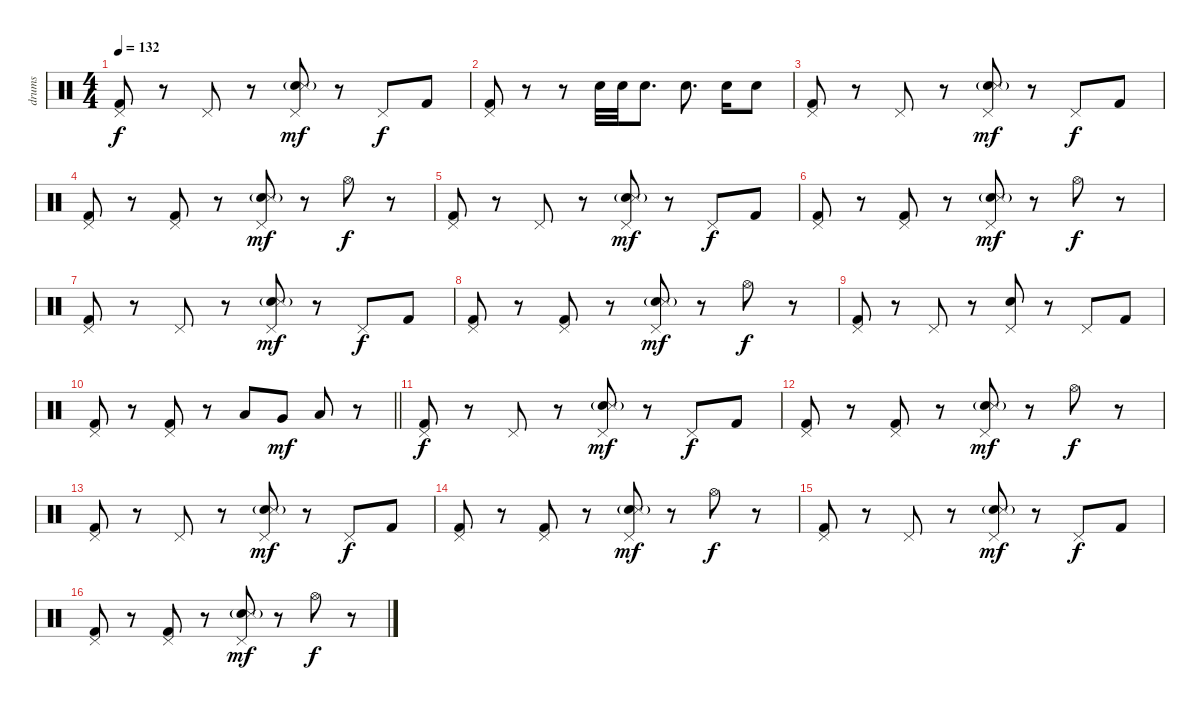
\track ("drums" "drums") {instrument percussion}
\staff {score}
\articulation defaults
\ts (4 4)
\tempo 132
\clef neutral
\ks c
("Pedal Hi-Hat (hit)" "Kick (hit) 2").8{dy f} r.8 "Pedal Hi-Hat (hit)".8 r.8 ("Pedal Hi-Hat (hit)" "Electric Snare (hit)"{g} "Snare (side stick) 3").8{dy mf} r.8 "Pedal Hi-Hat (hit)".8{dy f} "Kick (hit) 2".8 |
("Pedal Hi-Hat (hit)" "Kick (hit) 2").8 r.8 r.8 "Electric Snare (hit)".32 "Electric Snare (hit)".32 "Electric Snare (hit)".8{d} "Electric Snare (hit)".8{d} "Electric Snare (hit)".16 "Electric Snare (hit)".8 |
("Pedal Hi-Hat (hit)" "Kick (hit) 2").8 r.8 "Pedal Hi-Hat (hit)".8 r.8 ("Pedal Hi-Hat (hit)" "Electric Snare (hit)"{g} "Snare (side stick) 3").8{dy mf} r.8 "Pedal Hi-Hat (hit)".8{dy f} "Kick (hit) 2".8 |
("Pedal Hi-Hat (hit)" "Kick (hit) 2").8 r.8 ("Pedal Hi-Hat (hit)" "Kick (hit) 2").8 r.8 ("Pedal Hi-Hat (hit)" "Electric Snare (hit)"{g} "Snare (side stick) 3").8{dy mf} r.8 "Hi-Hat (open)".8{dy f} r.8 |
("Pedal Hi-Hat (hit)" "Kick (hit) 2").8 r.8 "Pedal Hi-Hat (hit)".8 r.8 ("Pedal Hi-Hat (hit)" "Electric Snare (hit)"{g} "Snare (side stick) 3").8{dy mf} r.8 "Pedal Hi-Hat (hit)".8{dy f} "Kick (hit) 2".8 |
("Pedal Hi-Hat (hit)" "Kick (hit) 2").8 r.8 ("Pedal Hi-Hat (hit)" "Kick (hit) 2").8 r.8 ("Pedal Hi-Hat (hit)" "Electric Snare (hit)"{g} "Snare (side stick) 3").8{dy mf} r.8 "Hi-Hat (open)".8{dy f} r.8 |
("Pedal Hi-Hat (hit)" "Kick (hit) 2").8 r.8 "Pedal Hi-Hat (hit)".8 r.8 ("Pedal Hi-Hat (hit)" "Electric Snare (hit)"{g} "Snare (side stick) 3").8{dy mf} r.8 "Pedal Hi-Hat (hit)".8{dy f} "Kick (hit) 2".8 |
("Pedal Hi-Hat (hit)" "Kick (hit) 2").8 r.8 ("Pedal Hi-Hat (hit)" "Kick (hit) 2").8 r.8 ("Pedal Hi-Hat (hit)" "Electric Snare (hit)"{g} "Snare (side stick) 3").8{dy mf} r.8 "Hi-Hat (open)".8{dy f} r.8 |
("Pedal Hi-Hat (hit)" "Kick (hit) 2").8 r.8 "Pedal Hi-Hat (hit)".8 r.8 ("Pedal Hi-Hat (hit)" "Electric Snare (hit)").8 r.8 "Pedal Hi-Hat (hit)".8 "Kick (hit) 2".8 |
\barLineRight lightlight
("Pedal Hi-Hat (hit)" "Kick (hit) 2").8 r.8 ("Pedal Hi-Hat (hit)" "Kick (hit) 2").8 r.8 "Low Floor Tom (hit)".8 "Very Low Tom (hit)".8{dy mf} "Low Tom (hit)".8 r.8 |
("Pedal Hi-Hat (hit)" "Kick (hit) 2").8{dy f} r.8 "Pedal Hi-Hat (hit)".8 r.8 ("Pedal Hi-Hat (hit)" "Electric Snare (hit)"{g} "Snare (side stick) 3").8{dy mf} r.8 "Pedal Hi-Hat (hit)".8{dy f} "Kick (hit) 2".8 |
("Pedal Hi-Hat (hit)" "Kick (hit) 2").8 r.8 ("Pedal Hi-Hat (hit)" "Kick (hit) 2").8 r.8 ("Pedal Hi-Hat (hit)" "Electric Snare (hit)"{g} "Snare (side stick) 3").8{dy mf} r.8 "Hi-Hat (open)".8{dy f} r.8 |
("Pedal Hi-Hat (hit)" "Kick (hit) 2").8 r.8 "Pedal Hi-Hat (hit)".8 r.8 ("Pedal Hi-Hat (hit)" "Electric Snare (hit)"{g} "Snare (side stick) 3").8{dy mf} r.8 "Pedal Hi-Hat (hit)".8{dy f} "Kick (hit) 2".8 |
("Pedal Hi-Hat (hit)" "Kick (hit) 2").8 r.8 ("Pedal Hi-Hat (hit)" "Kick (hit) 2").8 r.8 ("Pedal Hi-Hat (hit)" "Electric Snare (hit)"{g} "Snare (side stick) 3").8{dy mf} r.8 "Hi-Hat (open)".8{dy f} r.8 |
("Pedal Hi-Hat (hit)" "Kick (hit) 2").8 r.8 "Pedal Hi-Hat (hit)".8 r.8 ("Pedal Hi-Hat (hit)" "Electric Snare (hit)"{g} "Snare (side stick) 3").8{dy mf} r.8 "Pedal Hi-Hat (hit)".8{dy f} "Kick (hit) 2".8 |
("Pedal Hi-Hat (hit)" "Kick (hit) 2").8 r.8 ("Pedal Hi-Hat (hit)" "Kick (hit) 2").8 r.8 ("Pedal Hi-Hat (hit)" "Electric Snare (hit)"{g} "Snare (side stick) 3").8{dy mf} r.8 "Hi-Hat (open)".8{dy f} r.8
